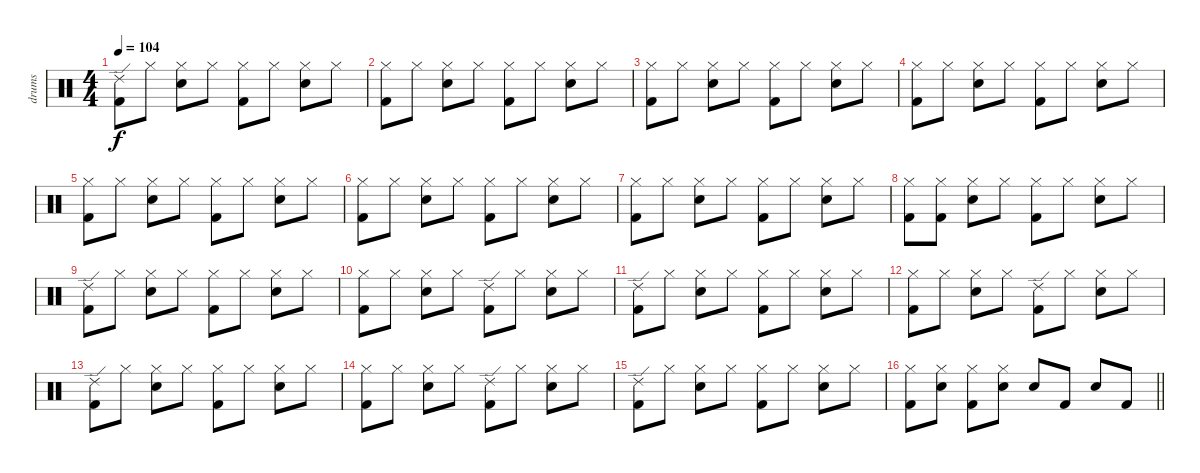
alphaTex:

\track ("drums" "drums") {instrument percussion}
\staff {score}
\articulation defaults
\ts (4 4)
\tempo 104
\clef neutral
\ks c
("Kick (hit) 2" "Ride (edge) 2").8{dy f} "Hi-Hat (closed)".8 ("Hi-Hat (closed)" "Snare (hit) 2").8 "Hi-Hat (closed)".8 ("Hi-Hat (closed)" "Kick (hit) 2").8 "Hi-Hat (closed)".8 ("Hi-Hat (closed)" "Snare (hit) 2").8 "Hi-Hat (closed)".8 |
("Hi-Hat (closed)" "Kick (hit) 2").8 "Hi-Hat (closed)".8 ("Hi-Hat (closed)" "Snare (hit) 2").8 "Hi-Hat (closed)".8 ("Hi-Hat (closed)" "Kick (hit) 2").8 "Hi-Hat (closed)".8 ("Hi-Hat (closed)" "Snare (hit) 2").8 "Hi-Hat (closed)".8 |
("Hi-Hat (closed)" "Kick (hit) 2").8 "Hi-Hat (closed)".8 ("Hi-Hat (closed)" "Snare (hit) 2").8 "Hi-Hat (closed)".8 ("Hi-Hat (closed)" "Kick (hit) 2").8 "Hi-Hat (closed)".8 ("Hi-Hat (closed)" "Snare (hit) 2").8 "Hi-Hat (closed)".8 |
("Hi-Hat (closed)" "Kick (hit) 2").8 "Hi-Hat (closed)".8 ("Hi-Hat (closed)" "Snare (hit) 2").8 "Hi-Hat (closed)".8 ("Hi-Hat (closed)" "Kick (hit) 2").8 "Hi-Hat (closed)".8 ("Hi-Hat (closed)" "Snare (hit) 2").8 "Hi-Hat (closed)".8 |
("Hi-Hat (closed)" "Kick (hit) 2").8 "Hi-Hat (closed)".8 ("Hi-Hat (closed)" "Snare (hit) 2").8 "Hi-Hat (closed)".8 ("Hi-Hat (closed)" "Kick (hit) 2").8 "Hi-Hat (closed)".8 ("Hi-Hat (closed)" "Snare (hit) 2").8 "Hi-Hat (closed)".8 |
("Hi-Hat (closed)" "Kick (hit) 2").8 "Hi-Hat (closed)".8 ("Hi-Hat (closed)" "Snare (hit) 2").8 "Hi-Hat (closed)".8 ("Hi-Hat (closed)" "Kick (hit) 2").8 "Hi-Hat (closed)".8 ("Hi-Hat (closed)" "Snare (hit) 2").8 "Hi-Hat (closed)".8 |
("Hi-Hat (closed)" "Kick (hit) 2").8 "Hi-Hat (closed)".8 ("Hi-Hat (closed)" "Snare (hit) 2").8 "Hi-Hat (closed)".8 ("Hi-Hat (closed)" "Kick (hit) 2").8 "Hi-Hat (closed)".8 ("Hi-Hat (closed)" "Snare (hit) 2").8 "Hi-Hat (closed)".8 |
("Hi-Hat (closed)" "Kick (hit) 2").8 ("Hi-Hat (closed)" "Kick (hit) 2").8 ("Hi-Hat (closed)" "Snare (hit) 2").8 "Hi-Hat (closed)".8 ("Hi-Hat (closed)" "Kick (hit) 2").8 "Hi-Hat (closed)".8 ("Hi-Hat (closed)" "Snare (hit) 2").8 "Hi-Hat (closed)".8 |
("Kick (hit) 2" "Ride (edge) 2").8 "Hi-Hat (closed)".8 ("Hi-Hat (closed)" "Snare (hit) 2").8 "Hi-Hat (closed)".8 ("Hi-Hat (closed)" "Kick (hit) 2").8 "Hi-Hat (closed)".8 ("Hi-Hat (closed)" "Snare (hit) 2").8 "Hi-Hat (closed)".8 |
("Hi-Hat (closed)" "Kick (hit) 2").8 "Hi-Hat (closed)".8 ("Hi-Hat (closed)" "Snare (hit) 2").8 "Hi-Hat (closed)".8 ("Kick (hit) 2" "Ride (edge) 2").8 "Hi-Hat (closed)".8 ("Hi-Hat (closed)" "Snare (hit) 2").8 "Hi-Hat (closed)".8 |
("Kick (hit) 2" "Ride (edge) 2").8 "Hi-Hat (closed)".8 ("Hi-Hat (closed)" "Snare (hit) 2").8 "Hi-Hat (closed)".8 ("Hi-Hat (closed)" "Kick (hit) 2").8 "Hi-Hat (closed)".8 ("Hi-Hat (closed)" "Snare (hit) 2").8 "Hi-Hat (closed)".8 |
("Hi-Hat (closed)" "Kick (hit) 2").8 "Hi-Hat (closed)".8 ("Hi-Hat (closed)" "Snare (hit) 2").8 "Hi-Hat (closed)".8 ("Kick (hit) 2" "Ride (edge) 2").8 "Hi-Hat (closed)".8 ("Hi-Hat (closed)" "Snare (hit) 2").8 "Hi-Hat (closed)".8 |
("Kick (hit) 2" "Ride (edge) 2").8 "Hi-Hat (closed)".8 ("Hi-Hat (closed)" "Snare (hit) 2").8 "Hi-Hat (closed)".8 ("Hi-Hat (closed)" "Kick (hit) 2").8 "Hi-Hat (closed)".8 ("Hi-Hat (closed)" "Snare (hit) 2").8 "Hi-Hat (closed)".8 |
("Hi-Hat (closed)" "Kick (hit) 2").8 "Hi-Hat (closed)".8 ("Hi-Hat (closed)" "Snare (hit) 2").8 "Hi-Hat (closed)".8 ("Kick (hit) 2" "Ride (edge) 2").8 "Hi-Hat (closed)".8 ("Hi-Hat (closed)" "Snare (hit) 2").8 "Hi-Hat (closed)".8 |
("Kick (hit) 2" "Ride (edge) 2").8 "Hi-Hat (closed)".8 ("Hi-Hat (closed)" "Snare (hit) 2").8 "Hi-Hat (closed)".8 ("Hi-Hat (closed)" "Kick (hit) 2").8 "Hi-Hat (closed)".8 ("Hi-Hat (closed)" "Snare (hit) 2").8 "Hi-Hat (closed)".8 |
\barLineRight lightlight
("Hi-Hat (closed)" "Kick (hit) 2").8 ("Hi-Hat (closed)" "Snare (hit) 2").8 ("Hi-Hat (closed)" "Kick (hit) 2").8 ("Hi-Hat (closed)" "Snare (hit) 2").8 "Snare (hit) 2".8 "Kick (hit) 2".8 "Snare (hit) 2".8 "Kick (hit) 2".8
